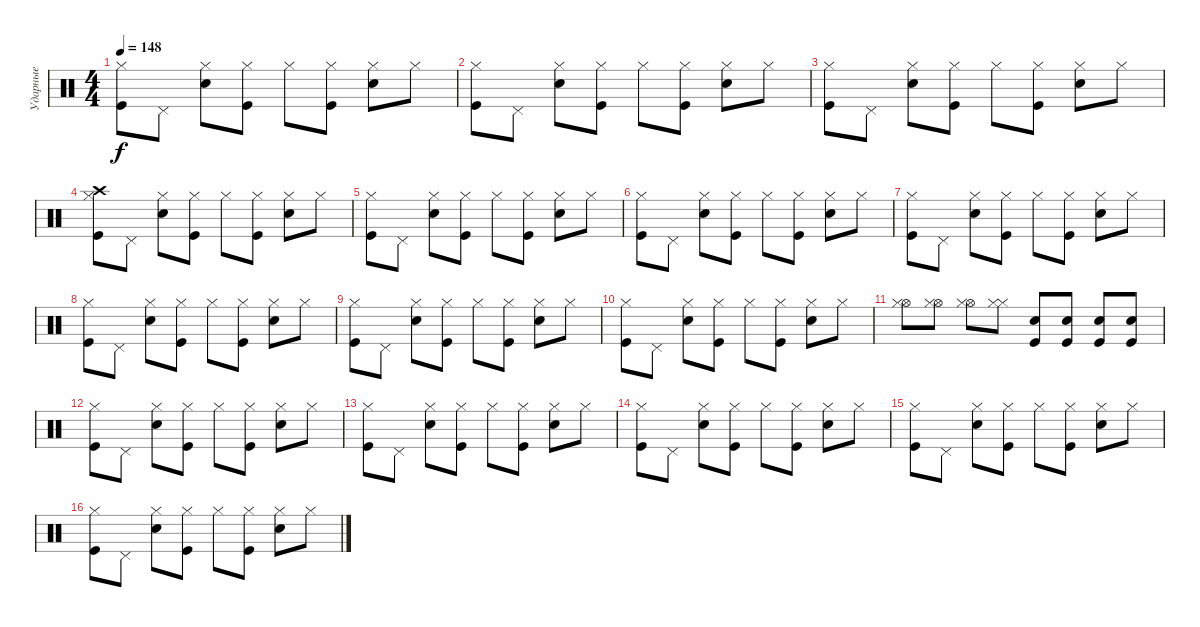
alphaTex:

\track ("Ударные" "Ударные") {instrument percussion}
\staff {score}
\articulation defaults
\ts (4 4)
\tempo 148
\clef neutral
\ks c
("Hi-Hat (closed)" "Kick (hit)").8{dy f} "Pedal Hi-Hat (hit)".8 ("Hi-Hat (closed)" "Snare (hit) 2").8 ("Hi-Hat (closed)" "Kick (hit)").8 "Hi-Hat (closed)".8 ("Hi-Hat (closed)" "Kick (hit)").8 ("Hi-Hat (closed)" "Snare (hit) 2").8 "Hi-Hat (closed)".8 |
("Hi-Hat (closed)" "Kick (hit)").8 "Pedal Hi-Hat (hit)".8 ("Hi-Hat (closed)" "Snare (hit) 2").8 ("Hi-Hat (closed)" "Kick (hit)").8 "Hi-Hat (closed)".8 ("Hi-Hat (closed)" "Kick (hit)").8 ("Hi-Hat (closed)" "Snare (hit) 2").8 "Hi-Hat (closed)".8 |
("Hi-Hat (closed)" "Kick (hit)").8 "Pedal Hi-Hat (hit)".8 ("Hi-Hat (closed)" "Snare (hit) 2").8 ("Hi-Hat (closed)" "Kick (hit)").8 "Hi-Hat (closed)".8 ("Hi-Hat (closed)" "Kick (hit)").8 ("Hi-Hat (closed)" "Snare (hit) 2").8 "Hi-Hat (closed)".8 |
("Hi-Hat (closed)" "Crash high (hit)" "Kick (hit)").8 "Pedal Hi-Hat (hit)".8 ("Hi-Hat (closed)" "Snare (hit) 2").8 ("Hi-Hat (closed)" "Kick (hit)").8 "Hi-Hat (closed)".8 ("Hi-Hat (closed)" "Kick (hit)").8 ("Hi-Hat (closed)" "Snare (hit) 2").8 "Hi-Hat (closed)".8 |
("Hi-Hat (closed)" "Kick (hit)").8 "Pedal Hi-Hat (hit)".8 ("Hi-Hat (closed)" "Snare (hit) 2").8 ("Hi-Hat (closed)" "Kick (hit)").8 "Hi-Hat (closed)".8 ("Hi-Hat (closed)" "Kick (hit)").8 ("Hi-Hat (closed)" "Snare (hit) 2").8 "Hi-Hat (closed)".8 |
("Hi-Hat (closed)" "Kick (hit)").8 "Pedal Hi-Hat (hit)".8 ("Hi-Hat (closed)" "Snare (hit) 2").8 ("Hi-Hat (closed)" "Kick (hit)").8 "Hi-Hat (closed)".8 ("Hi-Hat (closed)" "Kick (hit)").8 ("Hi-Hat (closed)" "Snare (hit) 2").8 "Hi-Hat (closed)".8 |
("Hi-Hat (closed)" "Kick (hit)").8 "Pedal Hi-Hat (hit)".8 ("Hi-Hat (closed)" "Snare (hit) 2").8 ("Hi-Hat (closed)" "Kick (hit)").8 "Hi-Hat (closed)".8 ("Hi-Hat (closed)" "Kick (hit)").8 ("Hi-Hat (closed)" "Snare (hit) 2").8 "Hi-Hat (closed)".8 |
("Hi-Hat (closed)" "Kick (hit)").8 "Pedal Hi-Hat (hit)".8 ("Hi-Hat (closed)" "Snare (hit) 2").8 ("Hi-Hat (closed)" "Kick (hit)").8 "Hi-Hat (closed)".8 ("Hi-Hat (closed)" "Kick (hit)").8 ("Hi-Hat (closed)" "Snare (hit) 2").8 "Hi-Hat (closed)".8 |
("Hi-Hat (closed)" "Kick (hit)").8 "Pedal Hi-Hat (hit)".8 ("Hi-Hat (closed)" "Snare (hit) 2").8 ("Hi-Hat (closed)" "Kick (hit)").8 "Hi-Hat (closed)".8 ("Hi-Hat (closed)" "Kick (hit)").8 ("Hi-Hat (closed)" "Snare (hit) 2").8 "Hi-Hat (closed)".8 |
("Hi-Hat (closed)" "Kick (hit)").8 "Pedal Hi-Hat (hit)".8 ("Hi-Hat (closed)" "Snare (hit) 2").8 ("Hi-Hat (closed)" "Kick (hit)").8 "Hi-Hat (closed)".8 ("Hi-Hat (closed)" "Kick (hit)").8 ("Hi-Hat (closed)" "Snare (hit) 2").8 "Hi-Hat (closed)".8 |
("Hi-Hat (open)" "Hi-Hat (closed)").8 ("Hi-Hat (open)" "Hi-Hat (closed)").8 ("Hi-Hat (open)" "Hi-Hat (closed)").8 ("Hi-Hat (closed)" "Hi-Hat (closed)").8 ("Snare (hit) 2" "Kick (hit)").8 ("Snare (hit) 2" "Kick (hit)").8 ("Snare (hit) 2" "Kick (hit)").8 ("Snare (hit) 2" "Kick (hit)").8 |
("Hi-Hat (closed)" "Kick (hit)").8 "Pedal Hi-Hat (hit)".8 ("Hi-Hat (closed)" "Snare (hit) 2").8 ("Hi-Hat (closed)" "Kick (hit)").8 "Hi-Hat (closed)".8 ("Hi-Hat (closed)" "Kick (hit)").8 ("Hi-Hat (closed)" "Snare (hit) 2").8 "Hi-Hat (closed)".8 |
("Hi-Hat (closed)" "Kick (hit)").8 "Pedal Hi-Hat (hit)".8 ("Hi-Hat (closed)" "Snare (hit) 2").8 ("Hi-Hat (closed)" "Kick (hit)").8 "Hi-Hat (closed)".8 ("Hi-Hat (closed)" "Kick (hit)").8 ("Hi-Hat (closed)" "Snare (hit) 2").8 "Hi-Hat (closed)".8 |
("Hi-Hat (closed)" "Kick (hit)").8 "Pedal Hi-Hat (hit)".8 ("Hi-Hat (closed)" "Snare (hit) 2").8 ("Hi-Hat (closed)" "Kick (hit)").8 "Hi-Hat (closed)".8 ("Hi-Hat (closed)" "Kick (hit)").8 ("Hi-Hat (closed)" "Snare (hit) 2").8 "Hi-Hat (closed)".8 |
("Hi-Hat (closed)" "Kick (hit)").8 "Pedal Hi-Hat (hit)".8 ("Hi-Hat (closed)" "Snare (hit) 2").8 ("Hi-Hat (closed)" "Kick (hit)").8 "Hi-Hat (closed)".8 ("Hi-Hat (closed)" "Kick (hit)").8 ("Hi-Hat (closed)" "Snare (hit) 2").8 "Hi-Hat (closed)".8 |
("Hi-Hat (closed)" "Kick (hit)").8 "Pedal Hi-Hat (hit)".8 ("Hi-Hat (closed)" "Snare (hit) 2").8 ("Hi-Hat (closed)" "Kick (hit)").8 "Hi-Hat (closed)".8 ("Hi-Hat (closed)" "Kick (hit)").8 ("Hi-Hat (closed)" "Snare (hit) 2").8 "Hi-Hat (closed)".8
